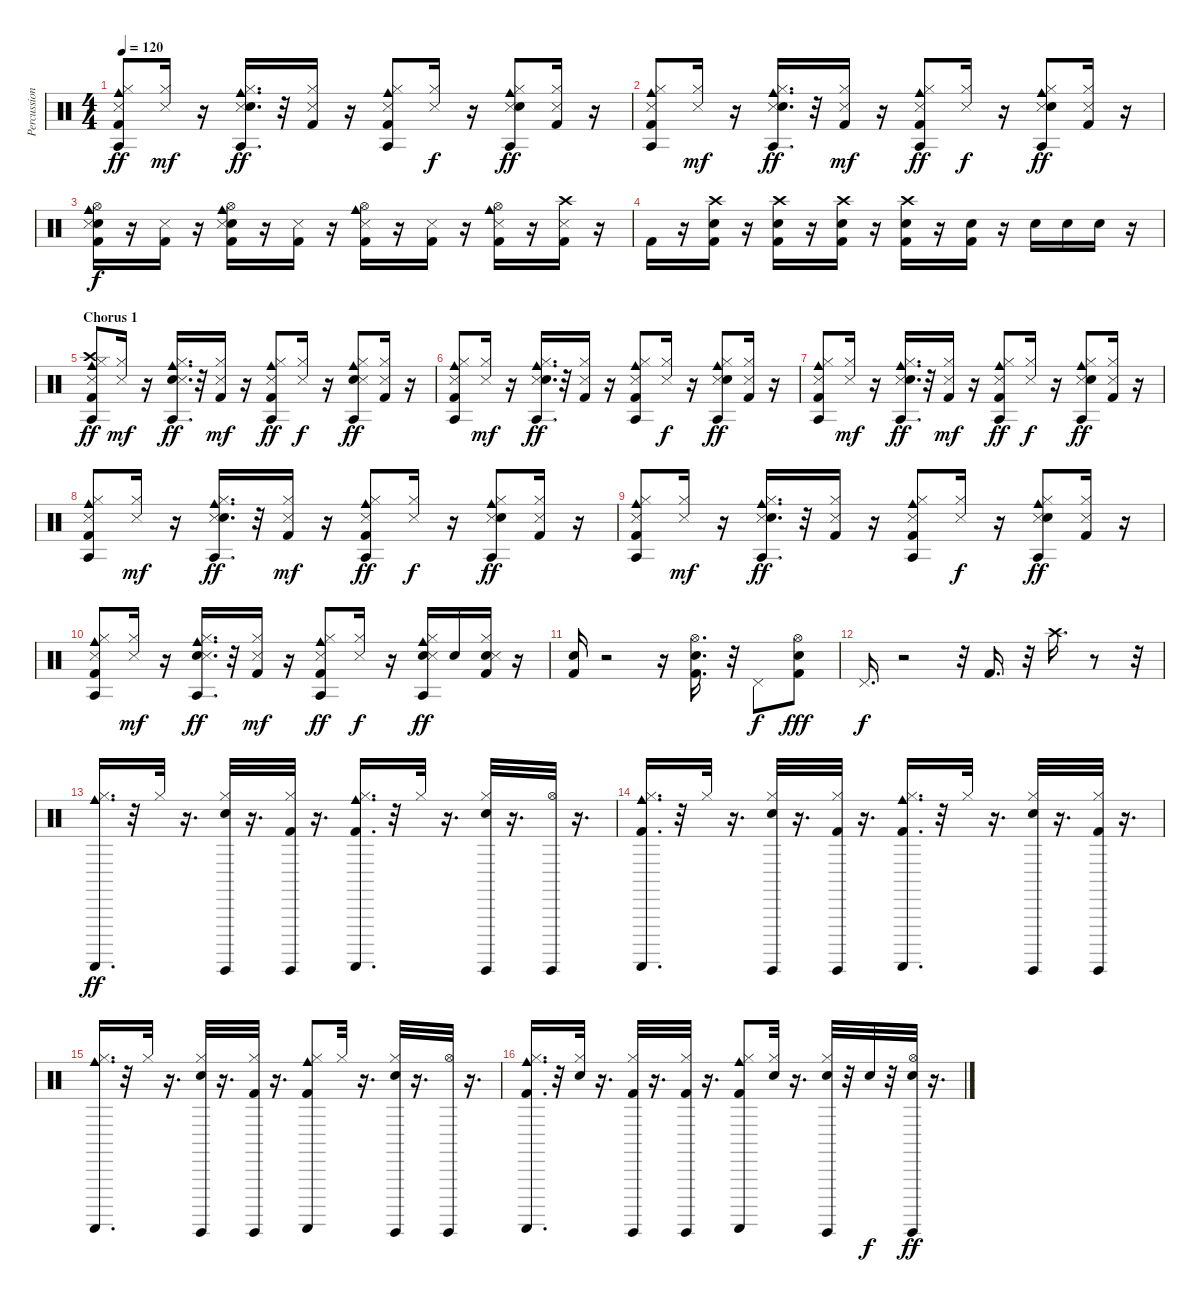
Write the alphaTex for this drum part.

\track ("Percussion" "Percussion") {instrument percussion}
\staff {score}
\articulation defaults
\ts (4 4)
\tempo 120
\clef neutral
\ks c
("Agogo tow (hit)" "Snare (side stick) 3" "Cowbell medium (hit)" "Hi-Hat (closed)" "Kick (hit) 2").8{dy ff} ("Snare (side stick) 3" "Hi-Hat (closed)").16{dy mf} r.16 ("Agogo tow (hit)" "Snare (side stick) 3" "Cowbell medium (hit)" "Hi-Hat (closed)" "Snare (hit) 2").16{d dy ff} r.32 ("Snare (side stick) 3" "Hi-Hat (closed)" "Kick (hit) 2").16 r.16 ("Agogo tow (hit)" "Snare (side stick) 3" "Cowbell medium (hit)" "Hi-Hat (closed)" "Kick (hit) 2").8 ("Snare (side stick) 3" "Hi-Hat (closed)").16{dy f} r.16 ("Agogo tow (hit)" "Snare (side stick) 3" "Cowbell medium (hit)" "Hi-Hat (closed)" "Snare (hit) 2").8{dy ff} ("Snare (side stick) 3" "Hi-Hat (closed)" "Kick (hit) 2").16 r.16 |
("Cowbell medium (hit)" "Snare (side stick) 3" "Agogo tow (hit)" "Kick (hit) 2" "Hi-Hat (closed)").8 ("Snare (side stick) 3" "Hi-Hat (closed)").16{dy mf} r.16 ("Cowbell medium (hit)" "Snare (side stick) 3" "Agogo tow (hit)" "Snare (hit) 2" "Hi-Hat (closed)").16{d dy ff} r.32 ("Snare (side stick) 3" "Kick (hit) 2" "Hi-Hat (closed)").16{dy mf} r.16 ("Cowbell medium (hit)" "Snare (side stick) 3" "Agogo tow (hit)" "Kick (hit) 2" "Hi-Hat (closed)").8{dy ff} ("Snare (side stick) 3" "Hi-Hat (closed)").16{dy f} r.16 ("Cowbell medium (hit)" "Snare (side stick) 3" "Agogo tow (hit)" "Snare (hit) 2" "Hi-Hat (closed)").8{dy ff} ("Snare (side stick) 3" "Kick (hit) 2" "Hi-Hat (closed)").16 r.16 |
("Electric Snare (hit)" "Snare (side stick) 3" "Cowbell medium (hit)" "Hi-Hat (open)" "Kick (hit) 2").16{dy f} r.16 ("Snare (side stick) 3" "Kick (hit) 2").16 r.16 ("Electric Snare (hit)" "Snare (side stick) 3" "Cowbell medium (hit)" "Hi-Hat (open)" "Kick (hit) 2").16 r.16 ("Snare (side stick) 3" "Kick (hit) 2").16 r.16 ("Snare (side stick) 3" "Cowbell medium (hit)" "Hi-Hat (open)" "Kick (hit) 2").16 r.16 ("Snare (side stick) 3" "Kick (hit) 2").16 r.16 ("Snare (side stick) 3" "Cowbell medium (hit)" "Hi-Hat (open)" "Kick (hit) 2").16 r.16 ("Crash high (hit)" "Snare (side stick) 3" "Kick (hit) 2").16 r.16 |
"Kick (hit) 2".16 r.16 ("Crash high (hit)" "Snare (hit) 2" "Kick (hit) 2").16 r.16 ("Snare (hit) 2" "Crash high (hit)" "Kick (hit) 2").16 r.16 ("Snare (hit) 2" "Kick (hit) 2" "Crash high (hit)").16 r.16 ("Snare (hit) 2" "Crash high (hit)" "Kick (hit) 2").16 r.16 ("Snare (hit) 2" "Kick (hit) 2").16 r.16 "Snare (hit) 2".16 "Snare (hit) 2".16 "Snare (hit) 2".16 r.16 |
\section ("" "Chorus 1")
("Kick (hit) 2" "Hi-Hat (closed)" "Agogo tow (hit)" "Crash high (hit)" "Cowbell medium (hit)" "Snare (side stick) 3").8{dy ff} ("Hi-Hat (closed)" "Snare (side stick) 3").16{dy mf} r.16 ("Snare (hit) 2" "Hi-Hat (closed)" "Agogo tow (hit)" "Cowbell medium (hit)" "Snare (side stick) 3").16{d dy ff} r.32 ("Kick (hit) 2" "Hi-Hat (closed)" "Snare (side stick) 3").16{dy mf} r.16 ("Kick (hit) 2" "Hi-Hat (closed)" "Agogo tow (hit)" "Cowbell medium (hit)" "Snare (side stick) 3").8{dy ff} ("Hi-Hat (closed)" "Snare (side stick) 3").16{dy f} r.16 ("Snare (hit) 2" "Hi-Hat (closed)" "Agogo tow (hit)" "Cowbell medium (hit)" "Snare (side stick) 3").8{dy ff} ("Kick (hit) 2" "Hi-Hat (closed)" "Snare (side stick) 3").16 r.16 |
("Cowbell medium (hit)" "Snare (side stick) 3" "Hi-Hat (closed)" "Agogo tow (hit)" "Kick (hit) 2").8 ("Snare (side stick) 3" "Hi-Hat (closed)").16{dy mf} r.16 ("Cowbell medium (hit)" "Snare (side stick) 3" "Hi-Hat (closed)" "Agogo tow (hit)" "Snare (hit) 2").16{d dy ff} r.32 ("Snare (side stick) 3" "Hi-Hat (closed)" "Kick (hit) 2").16 r.16 ("Cowbell medium (hit)" "Snare (side stick) 3" "Hi-Hat (closed)" "Agogo tow (hit)" "Kick (hit) 2").8 ("Snare (side stick) 3" "Hi-Hat (closed)").16{dy f} r.16 ("Cowbell medium (hit)" "Snare (side stick) 3" "Hi-Hat (closed)" "Agogo tow (hit)" "Snare (hit) 2").8{dy ff} ("Snare (side stick) 3" "Hi-Hat (closed)" "Kick (hit) 2").16 r.16 |
("Snare (side stick) 3" "Agogo tow (hit)" "Kick (hit) 2" "Cowbell medium (hit)" "Hi-Hat (closed)").8 ("Snare (side stick) 3" "Hi-Hat (closed)").16{dy mf} r.16 ("Snare (side stick) 3" "Agogo tow (hit)" "Snare (hit) 2" "Cowbell medium (hit)" "Hi-Hat (closed)").16{d dy ff} r.32 ("Snare (side stick) 3" "Kick (hit) 2" "Hi-Hat (closed)").16{dy mf} r.16 ("Snare (side stick) 3" "Agogo tow (hit)" "Kick (hit) 2" "Cowbell medium (hit)" "Hi-Hat (closed)").8{dy ff} ("Snare (side stick) 3" "Hi-Hat (closed)").16{dy f} r.16 ("Snare (side stick) 3" "Agogo tow (hit)" "Snare (hit) 2" "Cowbell medium (hit)" "Hi-Hat (closed)").8{dy ff} ("Snare (side stick) 3" "Kick (hit) 2" "Hi-Hat (closed)").16 r.16 |
("Cowbell medium (hit)" "Agogo tow (hit)" "Snare (side stick) 3" "Kick (hit) 2" "Hi-Hat (closed)").8 ("Snare (side stick) 3" "Hi-Hat (closed)").16{dy mf} r.16 ("Cowbell medium (hit)" "Agogo tow (hit)" "Snare (side stick) 3" "Snare (hit) 2" "Hi-Hat (closed)").16{d dy ff} r.32 ("Snare (side stick) 3" "Kick (hit) 2" "Hi-Hat (closed)").16{dy mf} r.16 ("Cowbell medium (hit)" "Agogo tow (hit)" "Snare (side stick) 3" "Kick (hit) 2" "Hi-Hat (closed)").8{dy ff} ("Snare (side stick) 3" "Hi-Hat (closed)").16{dy f} r.16 ("Cowbell medium (hit)" "Agogo tow (hit)" "Snare (side stick) 3" "Snare (hit) 2" "Hi-Hat (closed)").8{dy ff} ("Snare (side stick) 3" "Kick (hit) 2" "Hi-Hat (closed)").16 r.16 |
("Hi-Hat (closed)" "Cowbell medium (hit)" "Snare (side stick) 3" "Agogo tow (hit)" "Kick (hit) 2").8 ("Hi-Hat (closed)" "Snare (side stick) 3").16{dy mf} r.16 ("Hi-Hat (closed)" "Cowbell medium (hit)" "Snare (side stick) 3" "Agogo tow (hit)" "Snare (hit) 2").16{d dy ff} r.32 ("Hi-Hat (closed)" "Snare (side stick) 3" "Kick (hit) 2").16 r.16 ("Hi-Hat (closed)" "Cowbell medium (hit)" "Snare (side stick) 3" "Agogo tow (hit)" "Kick (hit) 2").8 ("Hi-Hat (closed)" "Snare (side stick) 3").16{dy f} r.16 ("Hi-Hat (closed)" "Cowbell medium (hit)" "Snare (side stick) 3" "Agogo tow (hit)" "Snare (hit) 2").8{dy ff} ("Hi-Hat (closed)" "Snare (side stick) 3" "Kick (hit) 2").16 r.16 |
("Kick (hit) 2" "Agogo tow (hit)" "Cowbell medium (hit)" "Snare (side stick) 3" "Hi-Hat (closed)").8 ("Snare (side stick) 3" "Hi-Hat (closed)").16{dy mf} r.16 ("Snare (hit) 2" "Agogo tow (hit)" "Cowbell medium (hit)" "Snare (side stick) 3" "Hi-Hat (closed)").16{d dy ff} r.32 ("Kick (hit) 2" "Snare (side stick) 3" "Hi-Hat (closed)").16{dy mf} r.16 ("Kick (hit) 2" "Agogo tow (hit)" "Cowbell medium (hit)" "Snare (side stick) 3" "Hi-Hat (closed)").8{dy ff} ("Snare (side stick) 3" "Hi-Hat (closed)").16{dy f} r.16 ("Snare (hit) 2" "Agogo tow (hit)" "Cowbell medium (hit)" "Snare (side stick) 3" "Hi-Hat (closed)").16{dy ff} "Snare (hit) 2".16 ("Snare (hit) 2" "Kick (hit) 2" "Snare (side stick) 3" "Hi-Hat (closed)").16 r.16 |
("Kick (hit) 2" "Snare (hit) 2").16 r.2 r.16 ("Snare (hit) 2" "Kick (hit) 2" "Hi-Hat (open)").16{d} r.32 "Pedal Hi-Hat (hit)".8{dy f} ("Kick (hit) 2" "Snare (hit) 2" "Hi-Hat (open)").8{dy fff} |
"Pedal Hi-Hat (hit)".16{d dy f} r.2 r.32 "Kick (hit) 2".16{d} r.32 "Crash high (hit)".16{d} r.8 r.32 |
("Cowbell medium (hit)" "Guiro (scrap-return)" "Hi-Hat (closed)").16{d dy ff} r.32 "Hi-Hat (closed)".32 r.16{d} ("Guiro (hit)" "Snare (hit) 2" "Hi-Hat (closed)").32 r.16{d} ("Hi-Hat (closed)" "Kick (hit) 2" "Guiro (hit)").32 r.16{d} ("Guiro (scrap-return)" "Kick (hit) 2" "Hi-Hat (closed)" "Cowbell medium (hit)").16{d} r.32 "Hi-Hat (closed)".32 r.16{d} ("Guiro (hit)" "Snare (hit) 2" "Hi-Hat (closed)").32 r.16{d} ("Hi-Hat (open)" "Guiro (hit)").32 r.16{d} |
("Guiro (scrap-return)" "Kick (hit) 2" "Hi-Hat (closed)" "Cowbell medium (hit)").16{d} r.32 "Hi-Hat (closed)".32 r.16{d} ("Guiro (hit)" "Snare (hit) 2" "Hi-Hat (closed)").32 r.16{d} ("Hi-Hat (closed)" "Kick (hit) 2" "Guiro (hit)").32 r.16{d} ("Guiro (scrap-return)" "Kick (hit) 2" "Hi-Hat (closed)" "Cowbell medium (hit)").16{d} r.32 "Hi-Hat (closed)".32 r.16{d} ("Guiro (hit)" "Snare (hit) 2" "Hi-Hat (closed)").32 r.16{d} ("Guiro (hit)" "Hi-Hat (closed)" "Kick (hit) 2").32 r.16{d} |
("Guiro (scrap-return)" "Hi-Hat (closed)" "Cowbell medium (hit)").16{d} r.32 "Hi-Hat (closed)".32 r.16{d} ("Guiro (hit)" "Snare (hit) 2" "Hi-Hat (closed)").32 r.16{d} ("Hi-Hat (closed)" "Kick (hit) 2" "Guiro (hit)").32 r.16{d} ("Cowbell medium (hit)" "Guiro (scrap-return)" "Kick (hit) 2" "Hi-Hat (closed)").8 "Hi-Hat (closed)".32 r.16{d} ("Guiro (hit)" "Snare (hit) 2" "Hi-Hat (closed)").32 r.16{d} ("Hi-Hat (open)" "Guiro (hit)").32 r.16{d} |
("Kick (hit) 2" "Guiro (scrap-return)" "Hi-Hat (closed)" "Cowbell medium (hit)").16{d} r.32 ("Snare (hit) 2" "Hi-Hat (closed)").32 r.16{d} ("Kick (hit) 2" "Guiro (hit)" "Hi-Hat (closed)").32 r.16{d} ("Hi-Hat (closed)" "Kick (hit) 2" "Guiro (hit)").32 r.16{d} ("Cowbell medium (hit)" "Guiro (scrap-return)" "Kick (hit) 2" "Hi-Hat (closed)").8 ("Snare (hit) 2" "Hi-Hat (closed)").32 r.16{d} ("Electric Snare (hit)" "Guiro (hit)" "Hi-Hat (closed)").32 r.32 "Electric Snare (hit)".32{dy f} r.32 ("Electric Snare (hit)" "Hi-Hat (open)" "Guiro (hit)").32{dy ff} r.16{d}
